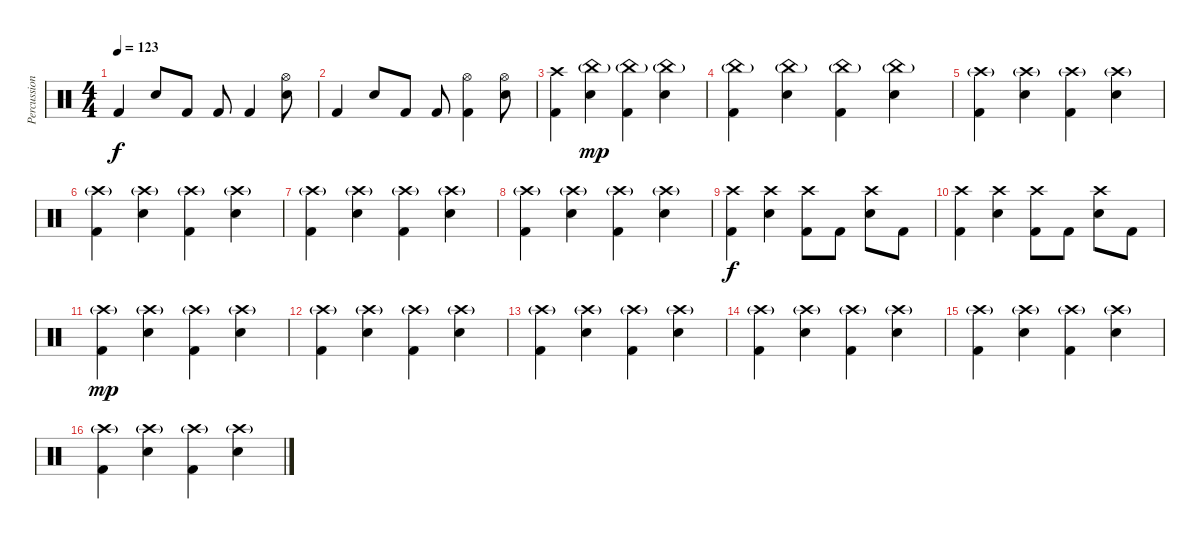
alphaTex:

\track ("Percussions" "Percussion") {instrument percussion}
\staff {score}
\articulation defaults
\ts (4 4)
\tempo 123
\clef neutral
\ks c "Kick (hit) 2".4{dy f} "Snare (hit) 2".8 "Kick (hit) 2".8 "Kick (hit) 2".8 "Kick (hit) 2".4
("Snare (hit) 2" "Hi-Hat (open)").8 |
"Kick (hit) 2".4 "Snare (hit) 2".8 "Kick (hit) 2".8 "Kick (hit) 2".8 ("Hi-Hat (open)" "Kick (hit) 2").4 ("Snare (hit) 2" "Hi-Hat (open)").8 |
("Crash high (hit)" "Kick (hit) 2").4 ("China (hit)"{g} "Snare (hit) 2").4{dy mp} ("China (hit)"{g} "Kick (hit) 2").4 ("China (hit)"{g} "Snare (hit) 2").4 |
("China (hit)"{g} "Kick (hit) 2").4 ("China (hit)"{g} "Snare (hit) 2").4 ("China (hit)"{g} "Kick (hit) 2").4 ("China (hit)"{g} "Snare (hit) 2").4 |
("Crash high (hit)"{g} "Kick (hit) 2").4 ("Crash high (hit)"{g} "Snare (hit) 2").4 ("Crash high (hit)"{g} "Kick (hit) 2").4 ("Crash high (hit)"{g} "Snare (hit) 2").4 |
("Crash high (hit)"{g} "Kick (hit) 2").4 ("Crash high (hit)"{g} "Snare (hit) 2").4 ("Crash high (hit)"{g} "Kick (hit) 2").4 ("Crash high (hit)"{g} "Snare (hit) 2").4 |
("Crash high (hit)"{g} "Kick (hit) 2").4 ("Crash high (hit)"{g} "Snare (hit) 2").4 ("Crash high (hit)"{g} "Kick (hit) 2").4 ("Crash high (hit)"{g} "Snare (hit) 2").4 |
("Crash high (hit)"{g} "Kick (hit) 2").4 ("Crash high (hit)"{g} "Snare (hit) 2").4 ("Crash high (hit)"{g} "Kick (hit) 2").4 ("Crash high (hit)"{g} "Snare (hit) 2").4 |
("Crash high (hit)" "Kick (hit) 2").4{dy f} ("Crash high (hit)" "Snare (hit) 2").4 ("Crash high (hit)" "Kick (hit) 2").8 "Kick (hit) 2".8 ("Crash high (hit)" "Snare (hit) 2").8 "Kick (hit) 2".8 |
("Crash high (hit)" "Kick (hit) 2").4 ("Crash high (hit)" "Snare (hit) 2").4 ("Crash high (hit)" "Kick (hit) 2").8 "Kick (hit) 2".8 ("Crash high (hit)" "Snare (hit) 2").8 "Kick (hit) 2".8 |
("Crash high (hit)"{g} "Kick (hit) 2").4{dy mp} ("Crash high (hit)"{g} "Snare (hit) 2").4 ("Crash high (hit)"{g} "Kick (hit) 2").4 ("Crash high (hit)"{g} "Snare (hit) 2").4 |
("Crash high (hit)"{g} "Kick (hit) 2").4 ("Crash high (hit)"{g} "Snare (hit) 2").4 ("Crash high (hit)"{g} "Kick (hit) 2").4 ("Crash high (hit)"{g} "Snare (hit) 2").4 |
("Crash high (hit)"{g} "Kick (hit) 2").4 ("Crash high (hit)"{g} "Snare (hit) 2").4 ("Crash high (hit)"{g} "Kick (hit) 2").4 ("Crash high (hit)"{g} "Snare (hit) 2").4 |
("Crash high (hit)"{g} "Kick (hit) 2").4 ("Crash high (hit)"{g} "Snare (hit) 2").4 ("Crash high (hit)"{g} "Kick (hit) 2").4 ("Crash high (hit)"{g} "Snare (hit) 2").4 |
("Crash high (hit)"{g} "Kick (hit) 2").4 ("Crash high (hit)"{g} "Snare (hit) 2").4 ("Crash high (hit)"{g} "Kick (hit) 2").4 ("Crash high (hit)"{g} "Snare (hit) 2").4 |
("Crash high (hit)"{g} "Kick (hit) 2").4 ("Crash high (hit)"{g} "Snare (hit) 2").4 ("Crash high (hit)"{g} "Kick (hit) 2").4 ("Crash high (hit)"{g} "Snare (hit) 2").4
